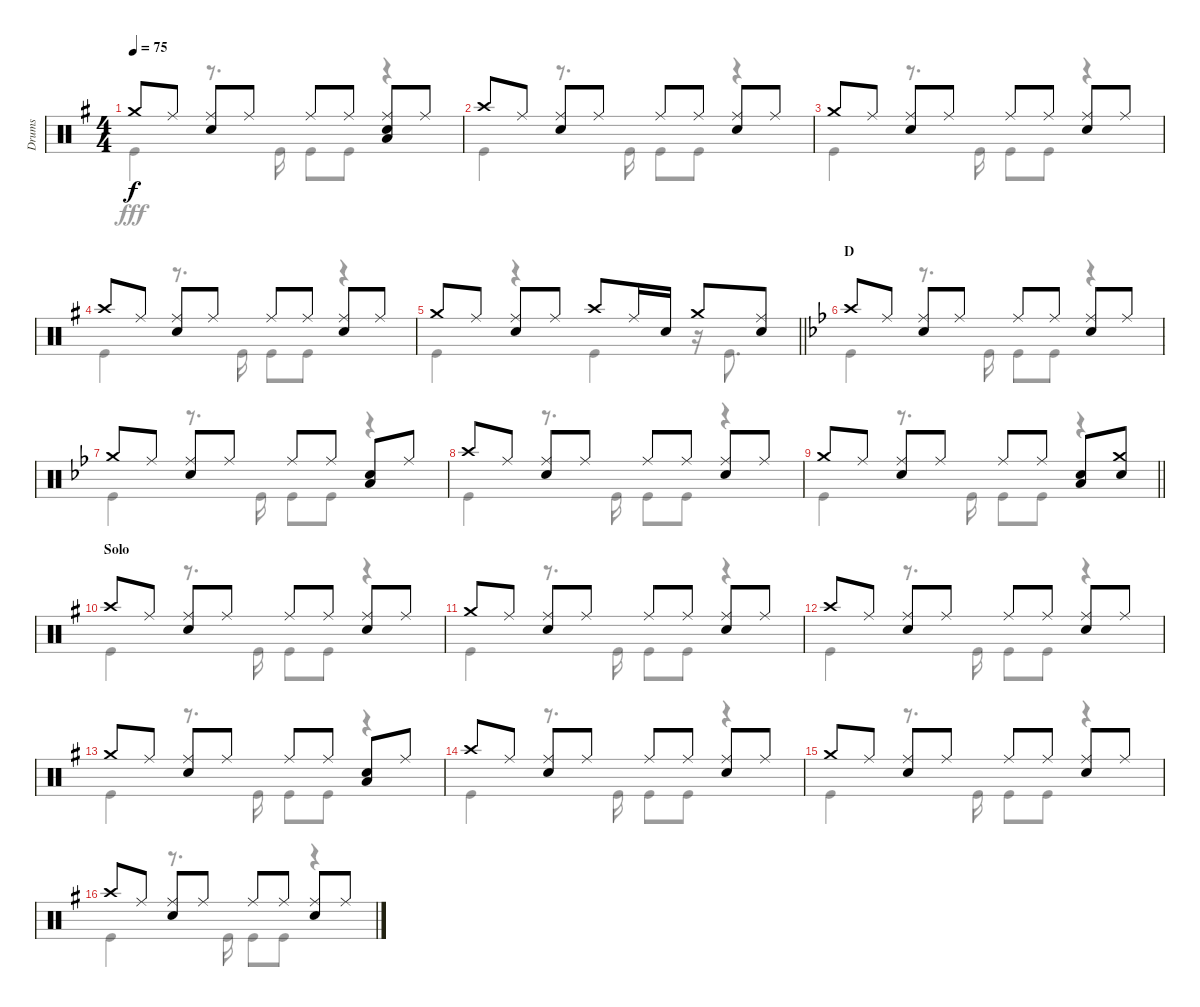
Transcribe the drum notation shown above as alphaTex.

\track ("Drums" "Drums") {instrument percussion}
\staff {score}
\articulation defaults
\voice
\ts (4 4)
\tempo 75
\clef neutral
\ks g "Crash medium (hit)".8{dy f} "Ride (middle)".8
("Ride (middle)" "Snare (hit) 2").8 "Ride (middle)".8 "Ride (middle)".8 "Ride (middle)".8 ("Ride (middle)" "Snare (hit) 2" "Low Tom (hit)").8 "Ride (middle)".8 |
"Crash high (hit)".8 "Ride (middle)".8 ("Ride (middle)" "Snare (hit) 2").8 "Ride (middle)".8 "Ride (middle)".8 "Ride (middle)".8 ("Ride (middle)" "Snare (hit) 2").8 "Ride (middle)".8 |
"Crash medium (hit)".8 "Ride (middle)".8 ("Ride (middle)" "Snare (hit) 2").8 "Ride (middle)".8 "Ride (middle)".8 "Ride (middle)".8 ("Ride (middle)" "Snare (hit) 2").8 "Ride (middle)".8 |
"Crash high (hit)".8 "Ride (middle)".8 ("Ride (middle)" "Snare (hit) 2").8 "Ride (middle)".8 "Ride (middle)".8 "Ride (middle)".8 ("Ride (middle)" "Snare (hit) 2").8 "Ride (middle)".8 |
\barLineRight lightlight "Crash medium (hit)".8 "Ride (middle)".8
("Ride (middle)" "Snare (hit) 2").8 "Ride (middle)".8 "Crash high (hit)".8 "Ride (middle)".16 "Snare (hit) 2".16 "Crash medium (hit)".8 ("Ride (middle)" "Snare (hit) 2").8 |
\section ("" "D")
\ks bb "Crash high (hit)".8 "Ride (middle)".8
("Ride (middle)" "Snare (hit) 2").8 "Ride (middle)".8 "Ride (middle)".8 "Ride (middle)".8 ("Ride (middle)" "Snare (hit) 2").8 "Ride (middle)".8 |
"Crash medium (hit)".8 "Ride (middle)".8 ("Ride (middle)" "Snare (hit) 2").8 "Ride (middle)".8 "Ride (middle)".8 "Ride (middle)".8 ("Snare (hit) 2" "Low Tom (hit)").8 "Ride (middle)".8 |
"Crash high (hit)".8 "Ride (middle)".8 ("Ride (middle)" "Snare (hit) 2").8 "Ride (middle)".8 "Ride (middle)".8 "Ride (middle)".8 ("Ride (middle)" "Snare (hit) 2").8 "Ride (middle)".8 |
\barLineRight lightlight "Crash medium (hit)".8 "Ride (middle)".8
("Ride (middle)" "Snare (hit) 2").8 "Ride (middle)".8 "Ride (middle)".8 "Ride (middle)".8 ("Snare (hit) 2" "Low Tom (hit)").8 ("Crash medium (hit)" "Snare (hit) 2").8 |
\section ("" "Solo")
\ks g "Crash high (hit)".8 "Ride (middle)".8
("Ride (middle)" "Snare (hit) 2").8 "Ride (middle)".8 "Ride (middle)".8 "Ride (middle)".8 ("Ride (middle)" "Snare (hit) 2").8 "Ride (middle)".8 |
"Crash medium (hit)".8 "Ride (middle)".8 ("Ride (middle)" "Snare (hit) 2").8 "Ride (middle)".8 "Ride (middle)".8 "Ride (middle)".8 ("Ride (middle)" "Snare (hit) 2").8 "Ride (middle)".8 |
"Crash high (hit)".8 "Ride (middle)".8 ("Ride (middle)" "Snare (hit) 2").8 "Ride (middle)".8 "Ride (middle)".8 "Ride (middle)".8 ("Ride (middle)" "Snare (hit) 2").8 "Ride (middle)".8 |
"Crash medium (hit)".8 "Ride (middle)".8 ("Ride (middle)" "Snare (hit) 2").8 "Ride (middle)".8 "Ride (middle)".8 "Ride (middle)".8 ("Snare (hit) 2" "Low Tom (hit)").8 "Ride (middle)".8 |
"Crash high (hit)".8 "Ride (middle)".8 ("Ride (middle)" "Snare (hit) 2").8 "Ride (middle)".8 "Ride (middle)".8 "Ride (middle)".8 ("Ride (middle)" "Snare (hit) 2").8 "Ride (middle)".8 |
"Crash medium (hit)".8 "Ride (middle)".8 ("Ride (middle)" "Snare (hit) 2").8 "Ride (middle)".8 "Ride (middle)".8 "Ride (middle)".8 ("Ride (middle)" "Snare (hit) 2").8 "Ride (middle)".8 |
"Crash high (hit)".8 "Ride (middle)".8 ("Ride (middle)" "Snare (hit) 2").8 "Ride (middle)".8 "Ride (middle)".8 "Ride (middle)".8 ("Ride (middle)" "Snare (hit) 2").8 "Ride (middle)".8
\voice
\clef neutral
\ottava regular
\simile none
\ks g "Kick (hit)".4{dy fff}
r.8{d} "Kick (hit)".16 "Kick (hit)".8 "Kick (hit)".8 r.4 |
"Kick (hit)".4 r.8{d} "Kick (hit)".16 "Kick (hit)".8 "Kick (hit)".8 r.4 |
"Kick (hit)".4 r.8{d} "Kick (hit)".16 "Kick (hit)".8 "Kick (hit)".8 r.4 |
"Kick (hit)".4 r.8{d} "Kick (hit)".16 "Kick (hit)".8 "Kick (hit)".8 r.4 |
\barLineRight lightlight "Kick (hit)".4
r.4 "Kick (hit)".4 r.16 "Kick (hit)".8{d} |
\ks bb "Kick (hit)".4
r.8{d} "Kick (hit)".16 "Kick (hit)".8 "Kick (hit)".8 r.4 |
"Kick (hit)".4 r.8{d} "Kick (hit)".16 "Kick (hit)".8 "Kick (hit)".8 r.4 |
"Kick (hit)".4 r.8{d} "Kick (hit)".16 "Kick (hit)".8 "Kick (hit)".8 r.4 |
\barLineRight lightlight "Kick (hit)".4
r.8{d} "Kick (hit)".16 "Kick (hit)".8 "Kick (hit)".8 r.4 |
\ks g "Kick (hit)".4
r.8{d} "Kick (hit)".16 "Kick (hit)".8 "Kick (hit)".8 r.4 |
"Kick (hit)".4 r.8{d} "Kick (hit)".16 "Kick (hit)".8 "Kick (hit)".8 r.4 |
"Kick (hit)".4 r.8{d} "Kick (hit)".16 "Kick (hit)".8 "Kick (hit)".8 r.4 |
"Kick (hit)".4 r.8{d} "Kick (hit)".16 "Kick (hit)".8 "Kick (hit)".8 r.4 |
"Kick (hit)".4 r.8{d} "Kick (hit)".16 "Kick (hit)".8 "Kick (hit)".8 r.4 |
"Kick (hit)".4 r.8{d} "Kick (hit)".16 "Kick (hit)".8 "Kick (hit)".8 r.4 |
"Kick (hit)".4 r.8{d} "Kick (hit)".16 "Kick (hit)".8 "Kick (hit)".8 r.4
